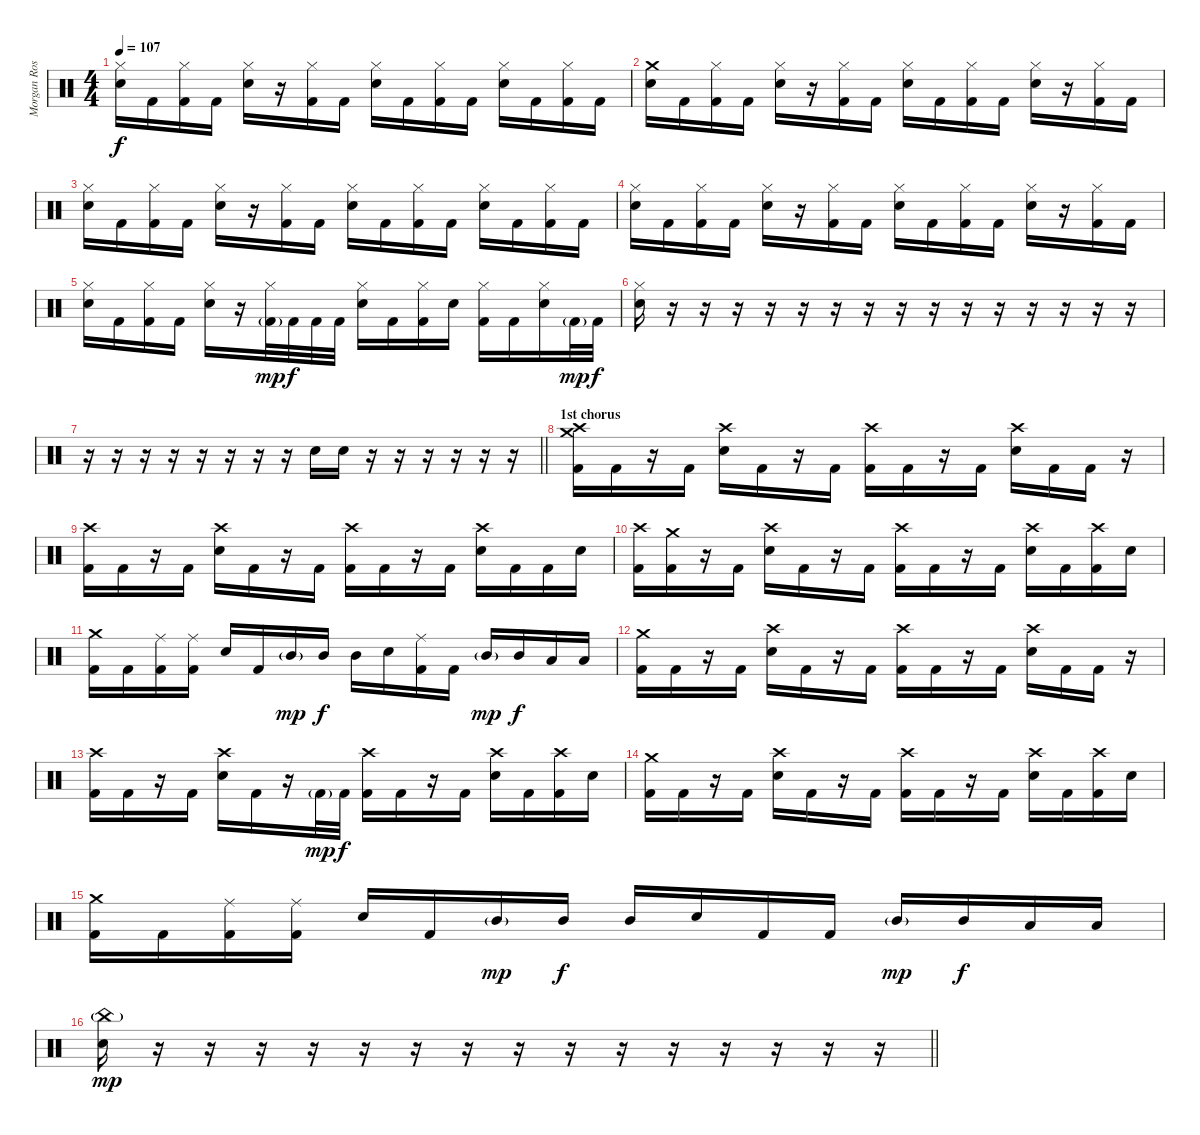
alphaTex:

\track ("Morgan Rose" "Morgan Ros") {instrument percussion}
\staff {score}
\articulation defaults
\ts (4 4)
\tempo 107
\clef neutral
\ks c
("Hi-Hat (closed)" "Snare (hit) 2").16{dy f} "Kick (hit) 2".16 ("Hi-Hat (closed)" "Kick (hit) 2").16 "Kick (hit) 2".16 ("Hi-Hat (closed)" "Snare (hit) 2").16 r.16 ("Hi-Hat (closed)" "Kick (hit) 2").16 "Kick (hit) 2".16 ("Hi-Hat (closed)" "Snare (hit) 2").16 "Kick (hit) 2".16 ("Hi-Hat (closed)" "Kick (hit) 2").16 "Kick (hit) 2".16 ("Hi-Hat (closed)" "Snare (hit) 2").16 "Kick (hit) 2".16 ("Hi-Hat (closed)" "Kick (hit) 2").16 "Kick (hit) 2".16 |
("Crash medium (hit)" "Snare (hit) 2").16 "Kick (hit) 2".16 ("Hi-Hat (closed)" "Kick (hit) 2").16 "Kick (hit) 2".16 ("Hi-Hat (closed)" "Snare (hit) 2").16 r.16 ("Hi-Hat (closed)" "Kick (hit) 2").16 "Kick (hit) 2".16 ("Hi-Hat (closed)" "Snare (hit) 2").16 "Kick (hit) 2".16 ("Hi-Hat (closed)" "Kick (hit) 2").16 "Kick (hit) 2".16 ("Hi-Hat (closed)" "Snare (hit) 2").16 r.16 ("Hi-Hat (closed)" "Kick (hit) 2").16 "Kick (hit) 2".16 |
("Hi-Hat (closed)" "Snare (hit) 2").16 "Kick (hit) 2".16 ("Hi-Hat (closed)" "Kick (hit) 2").16 "Kick (hit) 2".16 ("Hi-Hat (closed)" "Snare (hit) 2").16 r.16 ("Hi-Hat (closed)" "Kick (hit) 2").16 "Kick (hit) 2".16 ("Hi-Hat (closed)" "Snare (hit) 2").16 "Kick (hit) 2".16 ("Hi-Hat (closed)" "Kick (hit) 2").16 "Kick (hit) 2".16 ("Hi-Hat (closed)" "Snare (hit) 2").16 "Kick (hit) 2".16 ("Hi-Hat (closed)" "Kick (hit) 2").16 "Kick (hit) 2".16 |
("Hi-Hat (closed)" "Snare (hit) 2").16 "Kick (hit) 2".16 ("Hi-Hat (closed)" "Kick (hit) 2").16 "Kick (hit) 2".16 ("Hi-Hat (closed)" "Snare (hit) 2").16 r.16 ("Hi-Hat (closed)" "Kick (hit) 2").16 "Kick (hit) 2".16 ("Hi-Hat (closed)" "Snare (hit) 2").16 "Kick (hit) 2".16 ("Hi-Hat (closed)" "Kick (hit) 2").16 "Kick (hit) 2".16 ("Hi-Hat (closed)" "Snare (hit) 2").16 r.16 ("Hi-Hat (closed)" "Kick (hit) 2").16 "Kick (hit) 2".16 |
("Hi-Hat (closed)" "Snare (hit) 2").16 "Kick (hit) 2".16 ("Hi-Hat (closed)" "Kick (hit) 2").16 "Kick (hit) 2".16 ("Hi-Hat (closed)" "Snare (hit) 2").16 r.16 ("Hi-Hat (closed)" "Kick (hit) 2"{g}).32{dy mp} "Kick (hit) 2".32{dy f} "Kick (hit) 2".32 "Kick (hit) 2".32 ("Hi-Hat (closed)" "Snare (hit) 2").16 "Kick (hit) 2".16 ("Hi-Hat (closed)" "Kick (hit) 2").16 "Snare (hit) 2".16 ("Hi-Hat (closed)" "Kick (hit) 2").16 "Kick (hit) 2".16 ("Hi-Hat (closed)" "Snare (hit) 2").16 "Kick (hit) 2"{g}.32{dy mp} "Kick (hit) 2".32{dy f} |
("Hi-Hat (closed)" "Snare (hit) 2").16 r.16 r.16 r.16 r.16 r.16 r.16 r.16 r.16 r.16 r.16 r.16 r.16 r.16 r.16 r.16 |
\barLineRight lightlight
r.16 r.16 r.16 r.16 r.16 r.16 r.16 r.16 "Snare (hit) 2".16 "Snare (hit) 2".16 r.16 r.16 r.16 r.16 r.16 r.16 |
\section ("" "1st chorus")
("Crash medium (hit)" "Crash high (hit)" "Kick (hit) 2").16 "Kick (hit) 2".16 r.16 "Kick (hit) 2".16 ("Crash high (hit)" "Snare (hit) 2").16 "Kick (hit) 2".16 r.16 "Kick (hit) 2".16 ("Crash high (hit)" "Kick (hit) 2").16 "Kick (hit) 2".16 r.16 "Kick (hit) 2".16 ("Crash high (hit)" "Snare (hit) 2").16 "Kick (hit) 2".16 "Kick (hit) 2".16 r.16 |
("Crash high (hit)" "Kick (hit) 2").16 "Kick (hit) 2".16 r.16 "Kick (hit) 2".16 ("Crash high (hit)" "Snare (hit) 2").16 "Kick (hit) 2".16 r.16 "Kick (hit) 2".16 ("Crash high (hit)" "Kick (hit) 2").16 "Kick (hit) 2".16 r.16 "Kick (hit) 2".16 ("Crash high (hit)" "Snare (hit) 2").16 "Kick (hit) 2".16 "Kick (hit) 2".16 "Snare (hit) 2".16 |
("Crash high (hit)" "Kick (hit) 2").16 ("Crash medium (hit)" "Kick (hit) 2").16 r.16 "Kick (hit) 2".16 ("Crash high (hit)" "Snare (hit) 2").16 "Kick (hit) 2".16 r.16 "Kick (hit) 2".16 ("Crash high (hit)" "Kick (hit) 2").16 "Kick (hit) 2".16 r.16 "Kick (hit) 2".16 ("Crash high (hit)" "Snare (hit) 2").16 "Kick (hit) 2".16 ("Crash high (hit)" "Kick (hit) 2").16 "Snare (hit) 2".16 |
("Crash medium (hit)" "Kick (hit) 2").16 "Kick (hit) 2".16 ("Ride (middle)" "Kick (hit) 2").16 ("Ride (middle)" "Kick (hit) 2").16 "Snare (hit) 2".16 "Kick (hit) 2".16 "Mid Tom (hit)"{g}.16{dy mp} "Mid Tom (hit)".16{dy f} "Mid Tom (hit)".16 "Snare (hit) 2".16 ("Ride (middle)" "Kick (hit) 2").16 "Kick (hit) 2".16 "Mid Tom (hit)"{g}.16{dy mp} "Mid Tom (hit)".16{dy f} "Low Tom (hit)".16 "Low Tom (hit)".16 |
("Crash medium (hit)" "Kick (hit) 2").16 "Kick (hit) 2".16 r.16 "Kick (hit) 2".16 ("Crash high (hit)" "Snare (hit) 2").16 "Kick (hit) 2".16 r.16 "Kick (hit) 2".16 ("Crash high (hit)" "Kick (hit) 2").16 "Kick (hit) 2".16 r.16 "Kick (hit) 2".16 ("Crash high (hit)" "Snare (hit) 2").16 "Kick (hit) 2".16 "Kick (hit) 2".16 r.16 |
("Crash high (hit)" "Kick (hit) 2").16 "Kick (hit) 2".16 r.16 "Kick (hit) 2".16 ("Crash high (hit)" "Snare (hit) 2").16 "Kick (hit) 2".16 r.16 "Kick (hit) 2"{g}.32{dy mp} "Kick (hit) 2".32{dy f} ("Crash high (hit)" "Kick (hit) 2").16 "Kick (hit) 2".16 r.16 "Kick (hit) 2".16 ("Crash high (hit)" "Snare (hit) 2").16 "Kick (hit) 2".16 ("Crash high (hit)" "Kick (hit) 2").16 "Snare (hit) 2".16 |
("Crash medium (hit)" "Kick (hit) 2").16 "Kick (hit) 2".16 r.16 "Kick (hit) 2".16 ("Crash high (hit)" "Snare (hit) 2").16 "Kick (hit) 2".16 r.16 "Kick (hit) 2".16 ("Crash high (hit)" "Kick (hit) 2").16 "Kick (hit) 2".16 r.16 "Kick (hit) 2".16 ("Crash high (hit)" "Snare (hit) 2").16 "Kick (hit) 2".16 ("Crash high (hit)" "Kick (hit) 2").16 "Snare (hit) 2".16 |
("Crash medium (hit)" "Kick (hit) 2").16 "Kick (hit) 2".16 ("Ride (middle)" "Kick (hit) 2").16 ("Ride (middle)" "Kick (hit) 2").16 "Snare (hit) 2".16 "Kick (hit) 2".16 "Mid Tom (hit)"{g}.16{dy mp} "Mid Tom (hit)".16{dy f} "Mid Tom (hit)".16 "Snare (hit) 2".16 "Kick (hit) 2".16 "Kick (hit) 2".16 "Mid Tom (hit)"{g}.16{dy mp} "Mid Tom (hit)".16{dy f} "Low Tom (hit)".16 "Low Tom (hit)".16 |
\barLineRight lightlight
("China (hit)"{g} "Snare (hit) 2").16{dy mp} r.16 r.16 r.16 r.16 r.16 r.16 r.16 r.16 r.16 r.16 r.16 r.16 r.16 r.16 r.16
